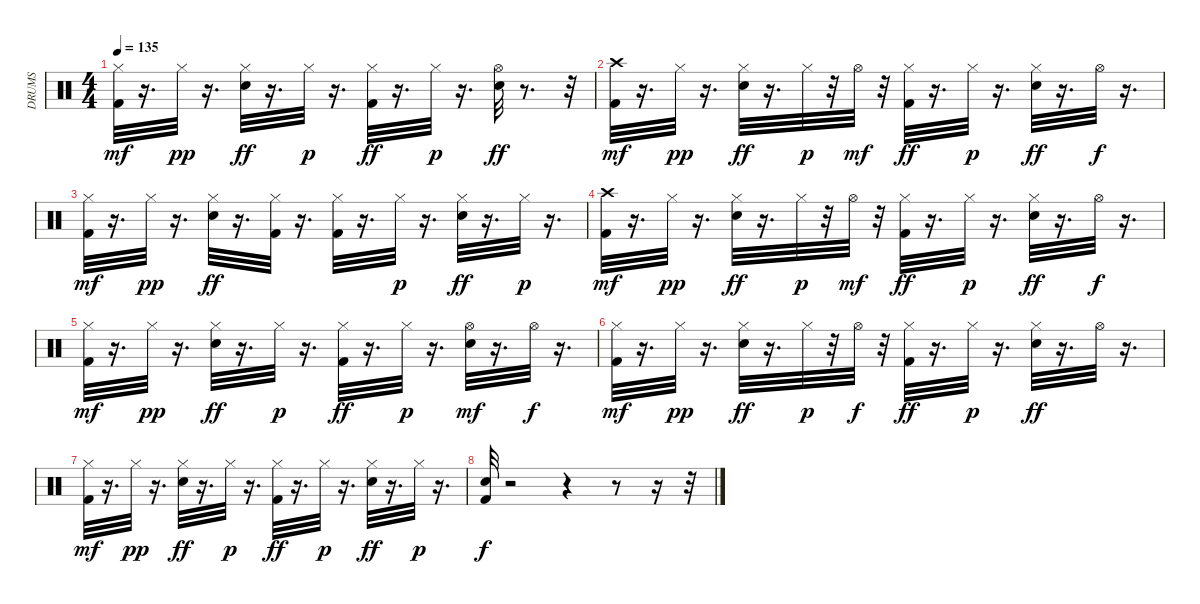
\track ("DRUMS" "DRUMS") {instrument percussion}
\staff {score}
\articulation defaults
\ts (4 4)
\tempo 135
\clef neutral
\ks c
("Kick (hit) 2" "Hi-Hat (closed)").32{dy mf} r.16{d} "Hi-Hat (closed)".32{dy pp} r.16{d} ("Hi-Hat (closed)" "Electric Snare (hit)").32{dy ff} r.16{d} "Hi-Hat (closed)".32{dy p} r.16{d} ("Hi-Hat (closed)" "Kick (hit) 2").32{dy ff} r.16{d} "Hi-Hat (closed)".32{dy p} r.16{d} ("Electric Snare (hit)" "Hi-Hat (open)").32{dy ff} r.8{d} r.32 |
("Kick (hit) 2" "Crash high (hit)").32{dy mf} r.16{d} "Hi-Hat (closed)".32{dy pp} r.16{d} ("Hi-Hat (closed)" "Electric Snare (hit)").32{dy ff} r.16{d} "Hi-Hat (closed)".32{dy p} r.32 "Hi-Hat (open)".32{dy mf} r.32 ("Hi-Hat (closed)" "Kick (hit) 2").32{dy ff} r.16{d} "Hi-Hat (closed)".32{dy p} r.16{d} ("Electric Snare (hit)" "Hi-Hat (closed)").32{dy ff} r.16{d} "Hi-Hat (open)".32{dy f} r.16{d} |
("Kick (hit) 2" "Hi-Hat (closed)").32{dy mf} r.16{d} "Hi-Hat (closed)".32{dy pp} r.16{d} ("Hi-Hat (closed)" "Electric Snare (hit)").32{dy ff} r.16{d} ("Hi-Hat (closed)" "Kick (hit) 2").32 r.16{d} ("Hi-Hat (closed)" "Kick (hit) 2").32 r.16{d} "Hi-Hat (closed)".32{dy p} r.16{d} ("Electric Snare (hit)" "Hi-Hat (closed)").32{dy ff} r.16{d} "Hi-Hat (closed)".32{dy p} r.16{d} |
("Kick (hit) 2" "Crash high (hit)").32{dy mf} r.16{d} "Hi-Hat (closed)".32{dy pp} r.16{d} ("Hi-Hat (closed)" "Electric Snare (hit)").32{dy ff} r.16{d} "Hi-Hat (closed)".32{dy p} r.32 "Hi-Hat (open)".32{dy mf} r.32 ("Hi-Hat (closed)" "Kick (hit) 2").32{dy ff} r.16{d} "Hi-Hat (closed)".32{dy p} r.16{d} ("Electric Snare (hit)" "Hi-Hat (closed)").32{dy ff} r.16{d} "Hi-Hat (open)".32{dy f} r.16{d} |
("Kick (hit) 2" "Hi-Hat (closed)").32{dy mf} r.16{d} "Hi-Hat (closed)".32{dy pp} r.16{d} ("Hi-Hat (closed)" "Electric Snare (hit)").32{dy ff} r.16{d} "Hi-Hat (closed)".32{dy p} r.16{d} ("Hi-Hat (closed)" "Kick (hit) 2").32{dy ff} r.16{d} "Hi-Hat (closed)".32{dy p} r.16{d} ("Electric Snare (hit)" "Hi-Hat (open)").32{dy mf} r.16{d} "Hi-Hat (open)".32{dy f} r.16{d} |
("Kick (hit) 2" "Hi-Hat (closed)").32{dy mf} r.16{d} "Hi-Hat (closed)".32{dy pp} r.16{d} ("Hi-Hat (closed)" "Electric Snare (hit)").32{dy ff} r.16{d} "Hi-Hat (closed)".32{dy p} r.32 "Hi-Hat (open)".32{dy f} r.32 ("Hi-Hat (closed)" "Kick (hit) 2").32{dy ff} r.16{d} "Hi-Hat (closed)".32{dy p} r.16{d} ("Electric Snare (hit)" "Hi-Hat (closed)").32{dy ff} r.16{d} "Hi-Hat (open)".32 r.16{d} |
("Kick (hit) 2" "Hi-Hat (closed)").32{dy mf} r.16{d} "Hi-Hat (closed)".32{dy pp} r.16{d} ("Hi-Hat (closed)" "Electric Snare (hit)").32{dy ff} r.16{d} "Hi-Hat (closed)".32{dy p} r.16{d} ("Hi-Hat (closed)" "Kick (hit) 2").32{dy ff} r.16{d} "Hi-Hat (closed)".32{dy p} r.16{d} ("Electric Snare (hit)" "Hi-Hat (closed)").32{dy ff} r.16{d} "Hi-Hat (closed)".32{dy p} r.16{d} |
("Electric Snare (hit)" "Kick (hit) 2").32{dy f} r.2 r.4 r.8 r.16 r.32
